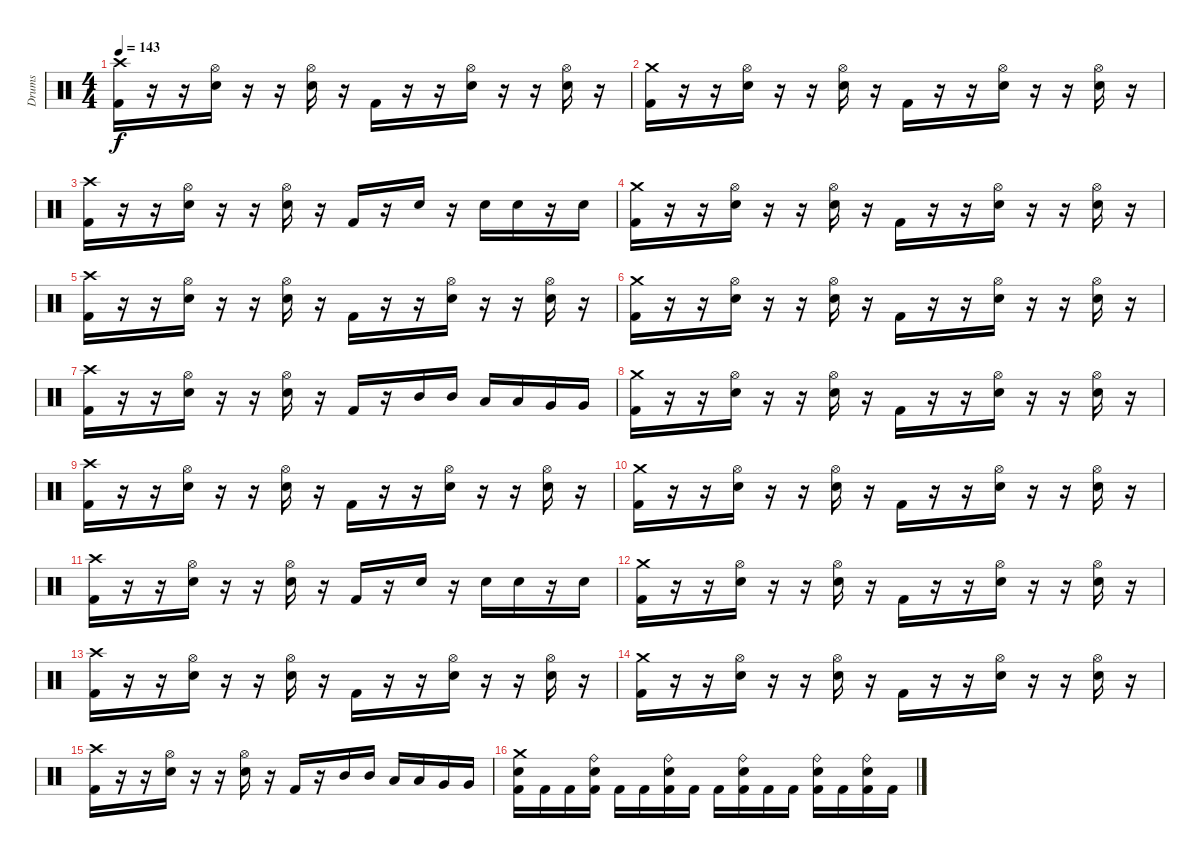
\track ("Drums" "Drums") {instrument percussion}
\staff {score}
\articulation defaults
\ts (4 4)
\tempo 143
\clef neutral
\ks c
("Crash high (hit)" "Kick (hit) 2").16{dy f} r.16 r.16 ("Hi-Hat (open)" "Electric Snare (hit)").16 r.16 r.16 ("Hi-Hat (open)" "Electric Snare (hit)").16 r.16 "Kick (hit) 2".16 r.16 r.16 ("Hi-Hat (open)" "Electric Snare (hit)").16 r.16 r.16 ("Hi-Hat (open)" "Electric Snare (hit)").16 r.16 |
("Crash medium (hit)" "Kick (hit) 2").16 r.16 r.16 ("Hi-Hat (open)" "Electric Snare (hit)").16 r.16 r.16 ("Hi-Hat (open)" "Electric Snare (hit)").16 r.16 "Kick (hit) 2".16 r.16 r.16 ("Hi-Hat (open)" "Electric Snare (hit)").16 r.16 r.16 ("Hi-Hat (open)" "Electric Snare (hit)").16 r.16 |
("Crash high (hit)" "Kick (hit) 2").16 r.16 r.16 ("Hi-Hat (open)" "Electric Snare (hit)").16 r.16 r.16 ("Hi-Hat (open)" "Electric Snare (hit)").16 r.16 "Kick (hit) 2".16 r.16 "Electric Snare (hit)".16 r.16 "Electric Snare (hit)".16 "Electric Snare (hit)".16 r.16 "Electric Snare (hit)".16 |
("Crash medium (hit)" "Kick (hit) 2").16 r.16 r.16 ("Hi-Hat (open)" "Electric Snare (hit)").16 r.16 r.16 ("Hi-Hat (open)" "Electric Snare (hit)").16 r.16 "Kick (hit) 2".16 r.16 r.16 ("Hi-Hat (open)" "Electric Snare (hit)").16 r.16 r.16 ("Hi-Hat (open)" "Electric Snare (hit)").16 r.16 |
("Crash high (hit)" "Kick (hit) 2").16 r.16 r.16 ("Hi-Hat (open)" "Electric Snare (hit)").16 r.16 r.16 ("Hi-Hat (open)" "Electric Snare (hit)").16 r.16 "Kick (hit) 2".16 r.16 r.16 ("Hi-Hat (open)" "Electric Snare (hit)").16 r.16 r.16 ("Hi-Hat (open)" "Electric Snare (hit)").16 r.16 |
("Crash medium (hit)" "Kick (hit) 2").16 r.16 r.16 ("Hi-Hat (open)" "Electric Snare (hit)").16 r.16 r.16 ("Hi-Hat (open)" "Electric Snare (hit)").16 r.16 "Kick (hit) 2".16 r.16 r.16 ("Hi-Hat (open)" "Electric Snare (hit)").16 r.16 r.16 ("Hi-Hat (open)" "Electric Snare (hit)").16 r.16 |
("Crash high (hit)" "Kick (hit) 2").16 r.16 r.16 ("Hi-Hat (open)" "Electric Snare (hit)").16 r.16 r.16 ("Hi-Hat (open)" "Electric Snare (hit)").16 r.16 "Kick (hit) 2".16 r.16 "Mid Tom (hit)".16 "Mid Tom (hit)".16 "Low Tom (hit)".16 "Low Tom (hit)".16 "Very Low Tom (hit)".16 "Very Low Tom (hit)".16 |
("Crash medium (hit)" "Kick (hit) 2").16 r.16 r.16 ("Hi-Hat (open)" "Electric Snare (hit)").16 r.16 r.16 ("Hi-Hat (open)" "Electric Snare (hit)").16 r.16 "Kick (hit) 2".16 r.16 r.16 ("Hi-Hat (open)" "Electric Snare (hit)").16 r.16 r.16 ("Hi-Hat (open)" "Electric Snare (hit)").16 r.16 |
("Crash high (hit)" "Kick (hit) 2").16 r.16 r.16 ("Hi-Hat (open)" "Electric Snare (hit)").16 r.16 r.16 ("Hi-Hat (open)" "Electric Snare (hit)").16 r.16 "Kick (hit) 2".16 r.16 r.16 ("Hi-Hat (open)" "Electric Snare (hit)").16 r.16 r.16 ("Hi-Hat (open)" "Electric Snare (hit)").16 r.16 |
("Crash medium (hit)" "Kick (hit) 2").16 r.16 r.16 ("Hi-Hat (open)" "Electric Snare (hit)").16 r.16 r.16 ("Hi-Hat (open)" "Electric Snare (hit)").16 r.16 "Kick (hit) 2".16 r.16 r.16 ("Hi-Hat (open)" "Electric Snare (hit)").16 r.16 r.16 ("Hi-Hat (open)" "Electric Snare (hit)").16 r.16 |
("Crash high (hit)" "Kick (hit) 2").16 r.16 r.16 ("Hi-Hat (open)" "Electric Snare (hit)").16 r.16 r.16 ("Hi-Hat (open)" "Electric Snare (hit)").16 r.16 "Kick (hit) 2".16 r.16 "Electric Snare (hit)".16 r.16 "Electric Snare (hit)".16 "Electric Snare (hit)".16 r.16 "Electric Snare (hit)".16 |
("Crash medium (hit)" "Kick (hit) 2").16 r.16 r.16 ("Hi-Hat (open)" "Electric Snare (hit)").16 r.16 r.16 ("Hi-Hat (open)" "Electric Snare (hit)").16 r.16 "Kick (hit) 2".16 r.16 r.16 ("Hi-Hat (open)" "Electric Snare (hit)").16 r.16 r.16 ("Hi-Hat (open)" "Electric Snare (hit)").16 r.16 |
("Crash high (hit)" "Kick (hit) 2").16 r.16 r.16 ("Hi-Hat (open)" "Electric Snare (hit)").16 r.16 r.16 ("Hi-Hat (open)" "Electric Snare (hit)").16 r.16 "Kick (hit) 2".16 r.16 r.16 ("Hi-Hat (open)" "Electric Snare (hit)").16 r.16 r.16 ("Hi-Hat (open)" "Electric Snare (hit)").16 r.16 |
("Crash medium (hit)" "Kick (hit) 2").16 r.16 r.16 ("Hi-Hat (open)" "Electric Snare (hit)").16 r.16 r.16 ("Hi-Hat (open)" "Electric Snare (hit)").16 r.16 "Kick (hit) 2".16 r.16 r.16 ("Hi-Hat (open)" "Electric Snare (hit)").16 r.16 r.16 ("Hi-Hat (open)" "Electric Snare (hit)").16 r.16 |
("Crash high (hit)" "Kick (hit) 2").16 r.16 r.16 ("Hi-Hat (open)" "Electric Snare (hit)").16 r.16 r.16 ("Hi-Hat (open)" "Electric Snare (hit)").16 r.16 "Kick (hit) 2".16 r.16 "Mid Tom (hit)".16 "Mid Tom (hit)".16 "Low Tom (hit)".16 "Low Tom (hit)".16 "Very Low Tom (hit)".16 "Very Low Tom (hit)".16 |
\section ("" "")
("Crash medium (hit)" "Electric Snare (hit)" "Kick (hit) 2").16 "Kick (hit) 2".16 "Kick (hit) 2".16 ("Ride (bell)" "Electric Snare (hit)" "Kick (hit) 2").16 "Kick (hit) 2".16 "Kick (hit) 2".16 ("Ride (bell)" "Electric Snare (hit)" "Kick (hit) 2").16 "Kick (hit) 2".16 "Kick (hit) 2".16 ("Ride (bell)" "Electric Snare (hit)" "Kick (hit) 2").16 "Kick (hit) 2".16 "Kick (hit) 2".16 ("Ride (bell)" "Electric Snare (hit)" "Kick (hit) 2").16 "Kick (hit) 2".16 ("Ride (bell)" "Electric Snare (hit)" "Kick (hit) 2").16 "Kick (hit) 2".16
